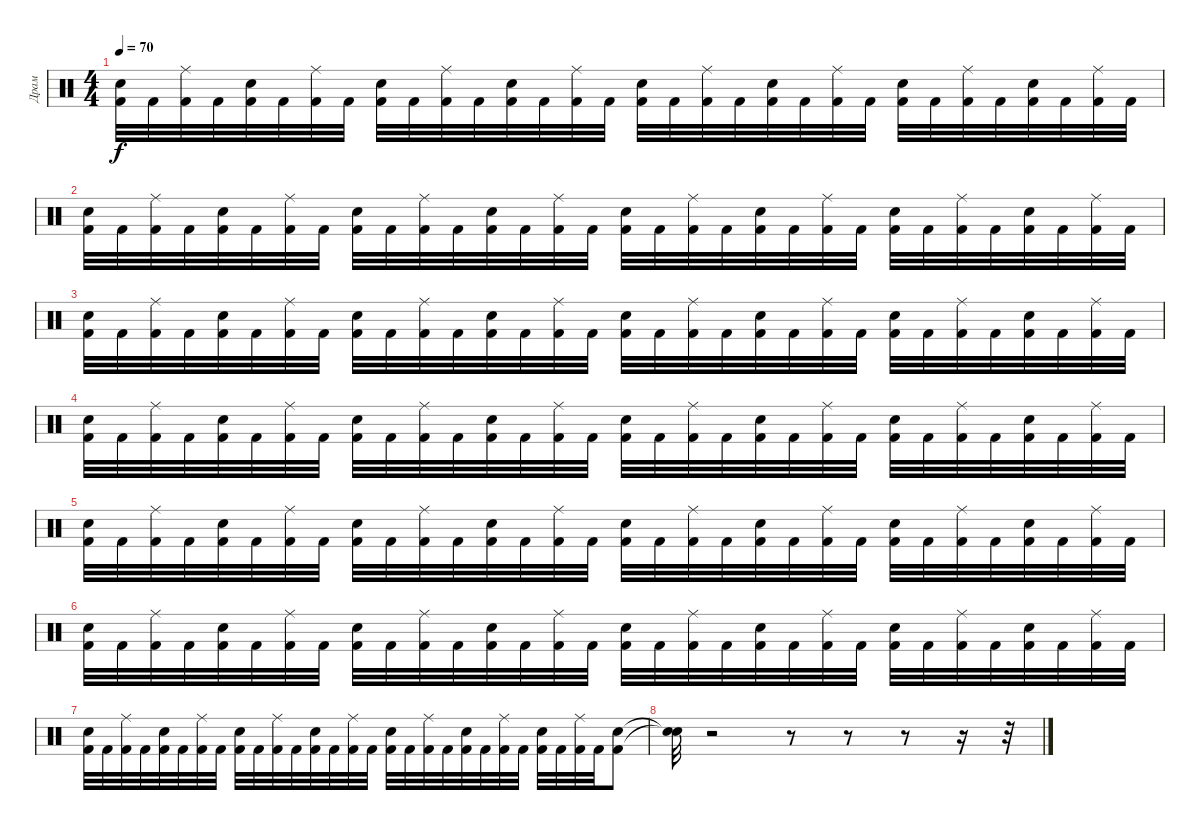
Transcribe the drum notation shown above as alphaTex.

\track ("Драм" "Драм") {instrument percussion}
\staff {score}
\articulation defaults
\ts (4 4)
\tempo 70
\clef neutral
\ks c
("Electric Snare (hit)" "Kick (hit) 2").32{dy f} "Kick (hit) 2".32 ("Ride (middle)" "Kick (hit) 2").32 "Kick (hit) 2".32 ("Electric Snare (hit)" "Kick (hit) 2").32 "Kick (hit) 2".32 ("Ride (middle)" "Kick (hit) 2").32 "Kick (hit) 2".32 ("Electric Snare (hit)" "Kick (hit) 2").32 "Kick (hit) 2".32 ("Ride (middle)" "Kick (hit) 2").32 "Kick (hit) 2".32 ("Electric Snare (hit)" "Kick (hit) 2").32 "Kick (hit) 2".32 ("Ride (middle)" "Kick (hit) 2").32 "Kick (hit) 2".32 ("Electric Snare (hit)" "Kick (hit) 2").32 "Kick (hit) 2".32 ("Ride (middle)" "Kick (hit) 2").32 "Kick (hit) 2".32 ("Electric Snare (hit)" "Kick (hit) 2").32 "Kick (hit) 2".32 ("Ride (middle)" "Kick (hit) 2").32 "Kick (hit) 2".32 ("Electric Snare (hit)" "Kick (hit) 2").32 "Kick (hit) 2".32 ("Ride (middle)" "Kick (hit) 2").32 "Kick (hit) 2".32 ("Electric Snare (hit)" "Kick (hit) 2").32 "Kick (hit) 2".32 ("Ride (middle)" "Kick (hit) 2").32 "Kick (hit) 2".32 |
("Electric Snare (hit)" "Kick (hit) 2").32 "Kick (hit) 2".32 ("Ride (middle)" "Kick (hit) 2").32 "Kick (hit) 2".32 ("Electric Snare (hit)" "Kick (hit) 2").32 "Kick (hit) 2".32 ("Ride (middle)" "Kick (hit) 2").32 "Kick (hit) 2".32 ("Electric Snare (hit)" "Kick (hit) 2").32 "Kick (hit) 2".32 ("Ride (middle)" "Kick (hit) 2").32 "Kick (hit) 2".32 ("Electric Snare (hit)" "Kick (hit) 2").32 "Kick (hit) 2".32 ("Ride (middle)" "Kick (hit) 2").32 "Kick (hit) 2".32 ("Electric Snare (hit)" "Kick (hit) 2").32 "Kick (hit) 2".32 ("Ride (middle)" "Kick (hit) 2").32 "Kick (hit) 2".32 ("Electric Snare (hit)" "Kick (hit) 2").32 "Kick (hit) 2".32 ("Ride (middle)" "Kick (hit) 2").32 "Kick (hit) 2".32 ("Electric Snare (hit)" "Kick (hit) 2").32 "Kick (hit) 2".32 ("Ride (middle)" "Kick (hit) 2").32 "Kick (hit) 2".32 ("Electric Snare (hit)" "Kick (hit) 2").32 "Kick (hit) 2".32 ("Ride (middle)" "Kick (hit) 2").32 "Kick (hit) 2".32 |
("Electric Snare (hit)" "Kick (hit) 2").32 "Kick (hit) 2".32 ("Ride (middle)" "Kick (hit) 2").32 "Kick (hit) 2".32 ("Electric Snare (hit)" "Kick (hit) 2").32 "Kick (hit) 2".32 ("Ride (middle)" "Kick (hit) 2").32 "Kick (hit) 2".32 ("Electric Snare (hit)" "Kick (hit) 2").32 "Kick (hit) 2".32 ("Ride (middle)" "Kick (hit) 2").32 "Kick (hit) 2".32 ("Electric Snare (hit)" "Kick (hit) 2").32 "Kick (hit) 2".32 ("Ride (middle)" "Kick (hit) 2").32 "Kick (hit) 2".32 ("Electric Snare (hit)" "Kick (hit) 2").32 "Kick (hit) 2".32 ("Ride (middle)" "Kick (hit) 2").32 "Kick (hit) 2".32 ("Electric Snare (hit)" "Kick (hit) 2").32 "Kick (hit) 2".32 ("Ride (middle)" "Kick (hit) 2").32 "Kick (hit) 2".32 ("Electric Snare (hit)" "Kick (hit) 2").32 "Kick (hit) 2".32 ("Ride (middle)" "Kick (hit) 2").32 "Kick (hit) 2".32 ("Electric Snare (hit)" "Kick (hit) 2").32 "Kick (hit) 2".32 ("Ride (middle)" "Kick (hit) 2").32 "Kick (hit) 2".32 |
("Electric Snare (hit)" "Kick (hit) 2").32 "Kick (hit) 2".32 ("Ride (middle)" "Kick (hit) 2").32 "Kick (hit) 2".32 ("Electric Snare (hit)" "Kick (hit) 2").32 "Kick (hit) 2".32 ("Ride (middle)" "Kick (hit) 2").32 "Kick (hit) 2".32 ("Electric Snare (hit)" "Kick (hit) 2").32 "Kick (hit) 2".32 ("Ride (middle)" "Kick (hit) 2").32 "Kick (hit) 2".32 ("Electric Snare (hit)" "Kick (hit) 2").32 "Kick (hit) 2".32 ("Ride (middle)" "Kick (hit) 2").32 "Kick (hit) 2".32 ("Electric Snare (hit)" "Kick (hit) 2").32 "Kick (hit) 2".32 ("Ride (middle)" "Kick (hit) 2").32 "Kick (hit) 2".32 ("Electric Snare (hit)" "Kick (hit) 2").32 "Kick (hit) 2".32 ("Ride (middle)" "Kick (hit) 2").32 "Kick (hit) 2".32 ("Electric Snare (hit)" "Kick (hit) 2").32 "Kick (hit) 2".32 ("Ride (middle)" "Kick (hit) 2").32 "Kick (hit) 2".32 ("Electric Snare (hit)" "Kick (hit) 2").32 "Kick (hit) 2".32 ("Ride (middle)" "Kick (hit) 2").32 "Kick (hit) 2".32 |
("Electric Snare (hit)" "Kick (hit) 2").32 "Kick (hit) 2".32 ("Ride (middle)" "Kick (hit) 2").32 "Kick (hit) 2".32 ("Electric Snare (hit)" "Kick (hit) 2").32 "Kick (hit) 2".32 ("Ride (middle)" "Kick (hit) 2").32 "Kick (hit) 2".32 ("Electric Snare (hit)" "Kick (hit) 2").32 "Kick (hit) 2".32 ("Ride (middle)" "Kick (hit) 2").32 "Kick (hit) 2".32 ("Electric Snare (hit)" "Kick (hit) 2").32 "Kick (hit) 2".32 ("Ride (middle)" "Kick (hit) 2").32 "Kick (hit) 2".32 ("Electric Snare (hit)" "Kick (hit) 2").32 "Kick (hit) 2".32 ("Ride (middle)" "Kick (hit) 2").32 "Kick (hit) 2".32 ("Electric Snare (hit)" "Kick (hit) 2").32 "Kick (hit) 2".32 ("Ride (middle)" "Kick (hit) 2").32 "Kick (hit) 2".32 ("Electric Snare (hit)" "Kick (hit) 2").32 "Kick (hit) 2".32 ("Ride (middle)" "Kick (hit) 2").32 "Kick (hit) 2".32 ("Electric Snare (hit)" "Kick (hit) 2").32 "Kick (hit) 2".32 ("Ride (middle)" "Kick (hit) 2").32 "Kick (hit) 2".32 |
("Electric Snare (hit)" "Kick (hit) 2").32 "Kick (hit) 2".32 ("Ride (middle)" "Kick (hit) 2").32 "Kick (hit) 2".32 ("Electric Snare (hit)" "Kick (hit) 2").32 "Kick (hit) 2".32 ("Ride (middle)" "Kick (hit) 2").32 "Kick (hit) 2".32 ("Electric Snare (hit)" "Kick (hit) 2").32 "Kick (hit) 2".32 ("Ride (middle)" "Kick (hit) 2").32 "Kick (hit) 2".32 ("Electric Snare (hit)" "Kick (hit) 2").32 "Kick (hit) 2".32 ("Ride (middle)" "Kick (hit) 2").32 "Kick (hit) 2".32 ("Electric Snare (hit)" "Kick (hit) 2").32 "Kick (hit) 2".32 ("Ride (middle)" "Kick (hit) 2").32 "Kick (hit) 2".32 ("Electric Snare (hit)" "Kick (hit) 2").32 "Kick (hit) 2".32 ("Ride (middle)" "Kick (hit) 2").32 "Kick (hit) 2".32 ("Electric Snare (hit)" "Kick (hit) 2").32 "Kick (hit) 2".32 ("Ride (middle)" "Kick (hit) 2").32 "Kick (hit) 2".32 ("Electric Snare (hit)" "Kick (hit) 2").32 "Kick (hit) 2".32 ("Ride (middle)" "Kick (hit) 2").32 "Kick (hit) 2".32 |
("Electric Snare (hit)" "Kick (hit) 2").32 "Kick (hit) 2".32 ("Ride (middle)" "Kick (hit) 2").32 "Kick (hit) 2".32 ("Electric Snare (hit)" "Kick (hit) 2").32 "Kick (hit) 2".32 ("Ride (middle)" "Kick (hit) 2").32 "Kick (hit) 2".32 ("Electric Snare (hit)" "Kick (hit) 2").32 "Kick (hit) 2".32 ("Ride (middle)" "Kick (hit) 2").32 "Kick (hit) 2".32 ("Electric Snare (hit)" "Kick (hit) 2").32 "Kick (hit) 2".32 ("Ride (middle)" "Kick (hit) 2").32 "Kick (hit) 2".32 ("Electric Snare (hit)" "Kick (hit) 2").32 "Kick (hit) 2".32 ("Ride (middle)" "Kick (hit) 2").32 "Kick (hit) 2".32 ("Electric Snare (hit)" "Kick (hit) 2").32 "Kick (hit) 2".32 ("Ride (middle)" "Kick (hit) 2").32 "Kick (hit) 2".32 ("Electric Snare (hit)" "Kick (hit) 2").32 "Kick (hit) 2".32 ("Ride (middle)" "Kick (hit) 2").32 "Kick (hit) 2".32 ("Electric Snare (hit)" "Kick (hit) 2").8 |
("Snare (hit)"{t} "Snare (hit)"{t}).32 r.2 r.8 r.8 r.8 r.16 r.32
